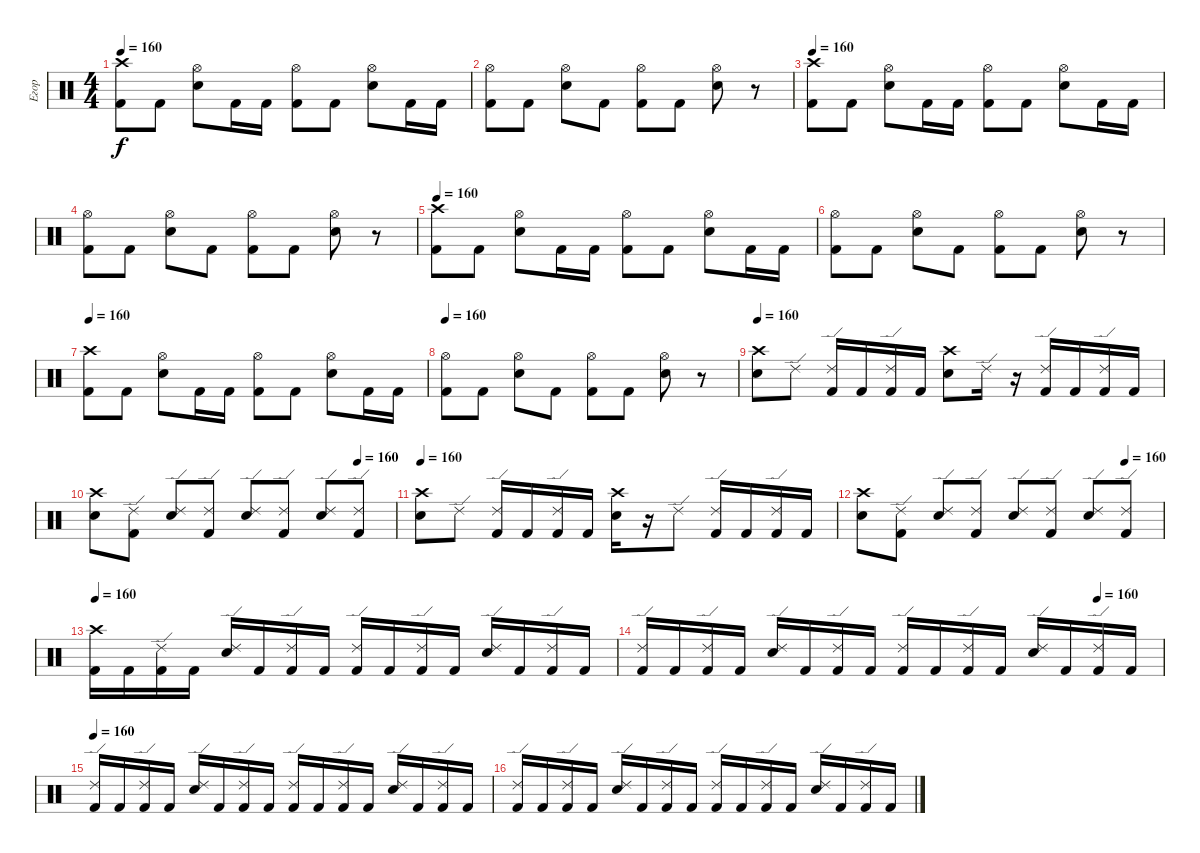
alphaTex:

\track ("Егор" "Егор") {instrument percussion}
\staff {score}
\articulation defaults
\ts (4 4)
\tempo 160
\clef neutral
\ks c
("Crash high (hit)" "Kick (hit) 2").8{dy f} "Kick (hit) 2".8 ("Hi-Hat (open)" "Snare (hit) 2").8 "Kick (hit) 2".16 "Kick (hit) 2".16 ("Hi-Hat (open)" "Kick (hit) 2").8 "Kick (hit) 2".8 ("Hi-Hat (open)" "Snare (hit) 2").8 "Kick (hit) 2".16 "Kick (hit) 2".16 |
("Hi-Hat (open)" "Kick (hit) 2").8 "Kick (hit) 2".8 ("Hi-Hat (open)" "Snare (hit) 2").8 "Kick (hit) 2".8 ("Hi-Hat (open)" "Kick (hit) 2").8 "Kick (hit) 2".8 ("Hi-Hat (open)" "Snare (hit) 2").8 r.8 |
\tempo 160
("Crash high (hit)" "Kick (hit) 2").8 "Kick (hit) 2".8 ("Hi-Hat (open)" "Snare (hit) 2").8 "Kick (hit) 2".16 "Kick (hit) 2".16 ("Hi-Hat (open)" "Kick (hit) 2").8 "Kick (hit) 2".8 ("Hi-Hat (open)" "Snare (hit) 2").8 "Kick (hit) 2".16 "Kick (hit) 2".16 |
("Hi-Hat (open)" "Kick (hit) 2").8 "Kick (hit) 2".8 ("Hi-Hat (open)" "Snare (hit) 2").8 "Kick (hit) 2".8 ("Hi-Hat (open)" "Kick (hit) 2").8 "Kick (hit) 2".8 ("Hi-Hat (open)" "Snare (hit) 2").8 r.8 |
\tempo 160
("Crash high (hit)" "Kick (hit) 2").8 "Kick (hit) 2".8 ("Hi-Hat (open)" "Snare (hit) 2").8 "Kick (hit) 2".16 "Kick (hit) 2".16 ("Hi-Hat (open)" "Kick (hit) 2").8 "Kick (hit) 2".8 ("Hi-Hat (open)" "Snare (hit) 2").8 "Kick (hit) 2".16 "Kick (hit) 2".16 |
("Hi-Hat (open)" "Kick (hit) 2").8 "Kick (hit) 2".8 ("Hi-Hat (open)" "Snare (hit) 2").8 "Kick (hit) 2".8 ("Hi-Hat (open)" "Kick (hit) 2").8 "Kick (hit) 2".8 ("Hi-Hat (open)" "Snare (hit) 2").8 r.8 |
\tempo 160
("Crash high (hit)" "Kick (hit) 2").8 "Kick (hit) 2".8 ("Hi-Hat (open)" "Snare (hit) 2").8 "Kick (hit) 2".16 "Kick (hit) 2".16 ("Hi-Hat (open)" "Kick (hit) 2").8 "Kick (hit) 2".8 ("Hi-Hat (open)" "Snare (hit) 2").8 "Kick (hit) 2".16 "Kick (hit) 2".16 |
\tempo 160
("Hi-Hat (open)" "Kick (hit) 2").8 "Kick (hit) 2".8 ("Hi-Hat (open)" "Snare (hit) 2").8 "Kick (hit) 2".8 ("Hi-Hat (open)" "Kick (hit) 2").8 "Kick (hit) 2".8 ("Hi-Hat (open)" "Snare (hit) 2").8 r.8 |
\tempo 160
("Crash high (hit)" "Snare (hit) 2").8 "Ride (edge) 2".8 ("Ride (edge) 2" "Kick (hit) 2").16 "Kick (hit) 2".16 ("Ride (edge) 2" "Kick (hit) 2").16 "Kick (hit) 2".16 ("Crash high (hit)" "Snare (hit) 2").8 "Ride (edge) 2".16 r.16 ("Ride (edge) 2" "Kick (hit) 2").16 "Kick (hit) 2".16 ("Ride (edge) 2" "Kick (hit) 2").16 "Kick (hit) 2".16 |
\tempo (160 0.875)
("Crash high (hit)" "Snare (hit) 2").8 ("Ride (edge) 2" "Kick (hit) 2").8 ("Ride (edge) 2" "Snare (hit) 2").8 ("Ride (edge) 2" "Kick (hit) 2").8 ("Ride (edge) 2" "Snare (hit) 2").8 ("Ride (edge) 2" "Kick (hit) 2").8 ("Ride (edge) 2" "Snare (hit) 2").8 ("Ride (edge) 2" "Kick (hit) 2").8 |
\tempo 160
("Crash high (hit)" "Snare (hit) 2").8 "Ride (edge) 2".8 ("Ride (edge) 2" "Kick (hit) 2").16 "Kick (hit) 2".16 ("Ride (edge) 2" "Kick (hit) 2").16 "Kick (hit) 2".16 ("Crash high (hit)" "Snare (hit) 2").16 r.16 "Ride (edge) 2".8 ("Ride (edge) 2" "Kick (hit) 2").16 "Kick (hit) 2".16 ("Ride (edge) 2" "Kick (hit) 2").16 "Kick (hit) 2".16 |
\tempo (160 0.875)
("Crash high (hit)" "Snare (hit) 2").8 ("Ride (edge) 2" "Kick (hit) 2").8 ("Ride (edge) 2" "Snare (hit) 2").8 ("Ride (edge) 2" "Kick (hit) 2").8 ("Ride (edge) 2" "Snare (hit) 2").8 ("Ride (edge) 2" "Kick (hit) 2").8 ("Ride (edge) 2" "Snare (hit) 2").8 ("Ride (edge) 2" "Kick (hit) 2").8 |
\tempo 160
("Crash high (hit)" "Kick (hit) 2").16 "Kick (hit) 2".16 ("Ride (edge) 2" "Kick (hit) 2").16 "Kick (hit) 2".16 ("Ride (edge) 2" "Snare (hit) 2").16 "Kick (hit) 2".16 ("Ride (edge) 2" "Kick (hit) 2").16 "Kick (hit) 2".16 ("Ride (edge) 2" "Kick (hit) 2").16 "Kick (hit) 2".16 ("Ride (edge) 2" "Kick (hit) 2").16 "Kick (hit) 2".16 ("Ride (edge) 2" "Snare (hit) 2").16 "Kick (hit) 2".16 ("Ride (edge) 2" "Kick (hit) 2").16 "Kick (hit) 2".16 |
\tempo (160 0.875)
("Ride (edge) 2" "Kick (hit) 2").16 "Kick (hit) 2".16 ("Ride (edge) 2" "Kick (hit) 2").16 "Kick (hit) 2".16 ("Ride (edge) 2" "Snare (hit) 2").16 "Kick (hit) 2".16 ("Ride (edge) 2" "Kick (hit) 2").16 "Kick (hit) 2".16 ("Ride (edge) 2" "Kick (hit) 2").16 "Kick (hit) 2".16 ("Ride (edge) 2" "Kick (hit) 2").16 "Kick (hit) 2".16 ("Ride (edge) 2" "Snare (hit) 2").16 "Kick (hit) 2".16 ("Ride (edge) 2" "Kick (hit) 2").16 "Kick (hit) 2".16 |
\tempo 160
("Ride (edge) 2" "Kick (hit) 2").16 "Kick (hit) 2".16 ("Ride (edge) 2" "Kick (hit) 2").16 "Kick (hit) 2".16 ("Ride (edge) 2" "Snare (hit) 2").16 "Kick (hit) 2".16 ("Ride (edge) 2" "Kick (hit) 2").16 "Kick (hit) 2".16 ("Ride (edge) 2" "Kick (hit) 2").16 "Kick (hit) 2".16 ("Ride (edge) 2" "Kick (hit) 2").16 "Kick (hit) 2".16 ("Ride (edge) 2" "Snare (hit) 2").16 "Kick (hit) 2".16 ("Ride (edge) 2" "Kick (hit) 2").16 "Kick (hit) 2".16 |
("Ride (edge) 2" "Kick (hit) 2").16 "Kick (hit) 2".16 ("Ride (edge) 2" "Kick (hit) 2").16 "Kick (hit) 2".16 ("Ride (edge) 2" "Snare (hit) 2").16 "Kick (hit) 2".16 ("Ride (edge) 2" "Kick (hit) 2").16 "Kick (hit) 2".16 ("Ride (edge) 2" "Kick (hit) 2").16 "Kick (hit) 2".16 ("Ride (edge) 2" "Kick (hit) 2").16 "Kick (hit) 2".16 ("Ride (edge) 2" "Snare (hit) 2").16 "Kick (hit) 2".16 ("Ride (edge) 2" "Kick (hit) 2").16 "Kick (hit) 2".16
